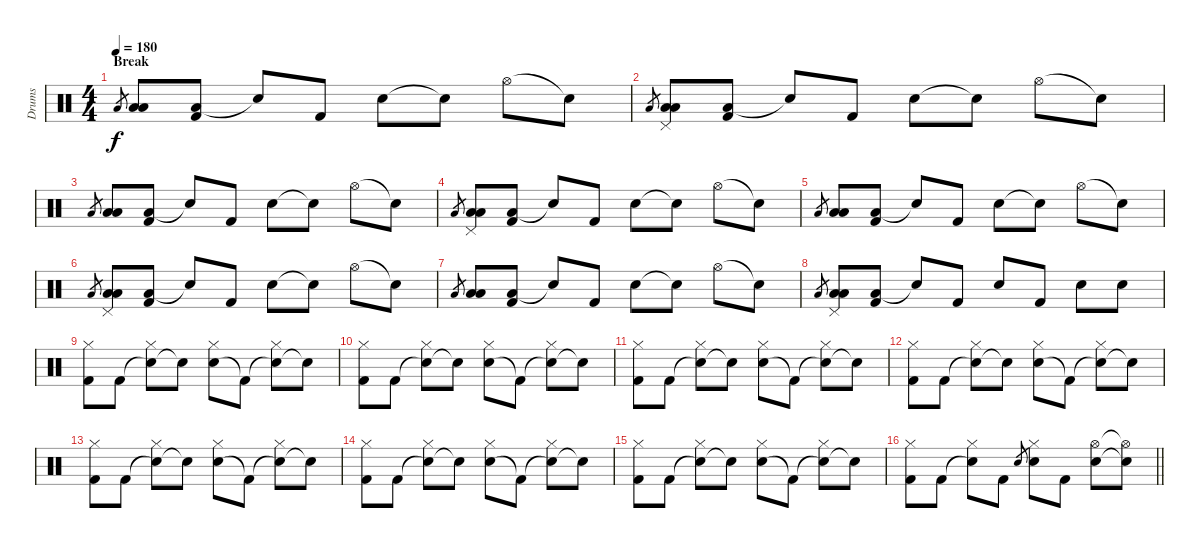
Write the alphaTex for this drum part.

\track ("Drums" "Drums") {instrument percussion}
\staff {score}
\articulation defaults
\ts (4 4)
\section ("" "Break")
\tempo 180
\clef neutral
\ks c "Low Tom (hit)".8{gr dy f}
("Low Tom (hit)" "Low Floor Tom (hit)").8 ("Low Tom (hit)" "Kick (hit) 2").8 "Snare (hit)"{t}.8 "Kick (hit) 2".8 "Electric Snare (hit)".8 "Snare (hit)"{t}.8 "Hi-Hat (open)".8 "Snare (hit)"{t}.8 |
"Low Tom (hit)".8{gr} ("Low Tom (hit)" "Low Floor Tom (hit)" "Pedal Hi-Hat (hit)").8 ("Low Tom (hit)" "Kick (hit) 2").8 "Snare (hit)"{t}.8 "Kick (hit) 2".8 "Electric Snare (hit)".8 "Snare (hit)"{t}.8 "Hi-Hat (open)".8 "Snare (hit)"{t}.8 |
"Low Tom (hit)".8{gr} ("Low Tom (hit)" "Low Floor Tom (hit)").8 ("Low Tom (hit)" "Kick (hit) 2").8 "Snare (hit)"{t}.8 "Kick (hit) 2".8 "Electric Snare (hit)".8 "Snare (hit)"{t}.8 "Hi-Hat (open)".8 "Snare (hit)"{t}.8 |
"Low Tom (hit)".8{gr} ("Low Tom (hit)" "Low Floor Tom (hit)" "Pedal Hi-Hat (hit)").8 ("Low Tom (hit)" "Kick (hit) 2").8 "Snare (hit)"{t}.8 "Kick (hit) 2".8 "Electric Snare (hit)".8 "Snare (hit)"{t}.8 "Hi-Hat (open)".8 "Snare (hit)"{t}.8 |
"Low Tom (hit)".8{gr} ("Low Tom (hit)" "Low Floor Tom (hit)").8 ("Low Tom (hit)" "Kick (hit) 2").8 "Snare (hit)"{t}.8 "Kick (hit) 2".8 "Electric Snare (hit)".8 "Snare (hit)"{t}.8 "Hi-Hat (open)".8 "Snare (hit)"{t}.8 |
"Low Tom (hit)".8{gr} ("Low Tom (hit)" "Low Floor Tom (hit)" "Pedal Hi-Hat (hit)").8 ("Low Tom (hit)" "Kick (hit) 2").8 "Snare (hit)"{t}.8 "Kick (hit) 2".8 "Electric Snare (hit)".8 "Snare (hit)"{t}.8 "Hi-Hat (open)".8 "Snare (hit)"{t}.8 |
"Low Tom (hit)".8{gr} ("Low Tom (hit)" "Low Floor Tom (hit)").8 ("Low Tom (hit)" "Kick (hit) 2").8 "Snare (hit)"{t}.8 "Kick (hit) 2".8 "Electric Snare (hit)".8 "Snare (hit)"{t}.8 "Hi-Hat (open)".8 "Snare (hit)"{t}.8 |
"Low Tom (hit)".8{gr} ("Low Tom (hit)" "Low Floor Tom (hit)" "Pedal Hi-Hat (hit)").8 ("Low Tom (hit)" "Kick (hit) 2").8 "Snare (hit)"{t}.8 "Kick (hit) 2".8 "Electric Snare (hit)".8 "Kick (hit) 2".8 "Electric Snare (hit)".8 "Electric Snare (hit)".8 |
("Kick (hit) 2" "Hi-Hat (closed)").8 "Kick (hit) 2".8 ("Snare (hit)"{t} "Hi-Hat (closed)").8 "Snare (hit)"{t}.8 ("Electric Snare (hit)" "Hi-Hat (closed)").8 "Kick (hit) 2"{t}.8 ("Snare (hit)"{t} "Hi-Hat (closed)").8 "Snare (hit)"{t}.8 |
("Kick (hit) 2" "Hi-Hat (closed)").8 "Kick (hit) 2".8 ("Snare (hit)"{t} "Hi-Hat (closed)").8 "Snare (hit)"{t}.8 ("Electric Snare (hit)" "Hi-Hat (closed)").8 "Kick (hit) 2"{t}.8 ("Snare (hit)"{t} "Hi-Hat (closed)").8 "Snare (hit)"{t}.8 |
("Kick (hit) 2" "Hi-Hat (closed)").8 "Kick (hit) 2".8 ("Snare (hit)"{t} "Hi-Hat (closed)").8 "Snare (hit)"{t}.8 ("Electric Snare (hit)" "Hi-Hat (closed)").8 "Kick (hit) 2"{t}.8 ("Snare (hit)"{t} "Hi-Hat (closed)").8 "Snare (hit)"{t}.8 |
("Kick (hit) 2" "Hi-Hat (closed)").8 "Kick (hit) 2".8 ("Snare (hit)"{t} "Hi-Hat (closed)").8 "Snare (hit)"{t}.8 ("Electric Snare (hit)" "Hi-Hat (closed)").8 "Kick (hit) 2"{t}.8 ("Snare (hit)"{t} "Hi-Hat (closed)").8 "Snare (hit)"{t}.8 |
("Kick (hit) 2" "Hi-Hat (closed)").8 "Kick (hit) 2".8 ("Snare (hit)"{t} "Hi-Hat (closed)").8 "Snare (hit)"{t}.8 ("Electric Snare (hit)" "Hi-Hat (closed)").8 "Kick (hit) 2"{t}.8 ("Snare (hit)"{t} "Hi-Hat (closed)").8 "Snare (hit)"{t}.8 |
("Kick (hit) 2" "Hi-Hat (closed)").8 "Kick (hit) 2".8 ("Snare (hit)"{t} "Hi-Hat (closed)").8 "Snare (hit)"{t}.8 ("Electric Snare (hit)" "Hi-Hat (closed)").8 "Kick (hit) 2"{t}.8 ("Snare (hit)"{t} "Hi-Hat (closed)").8 "Snare (hit)"{t}.8 |
("Kick (hit) 2" "Hi-Hat (closed)").8 "Kick (hit) 2".8 ("Snare (hit)"{t} "Hi-Hat (closed)").8 "Snare (hit)"{t}.8 ("Electric Snare (hit)" "Hi-Hat (closed)").8 "Kick (hit) 2"{t}.8 ("Snare (hit)"{t} "Hi-Hat (closed)").8 "Snare (hit)"{t}.8 |
\barLineRight lightlight
("Kick (hit) 2" "Hi-Hat (closed)").8 "Kick (hit) 2".8 ("Snare (hit)"{t} "Hi-Hat (closed)").8 "Kick (hit) 2".8 "Electric Snare (hit)".8{gr} ("Electric Snare (hit)" "Hi-Hat (closed)").8 "Kick (hit) 2".8 ("Electric Snare (hit)" "Hi-Hat (open)").8 ("Snare (hit)"{t} "Hi-Hat (open)"{t}).8
